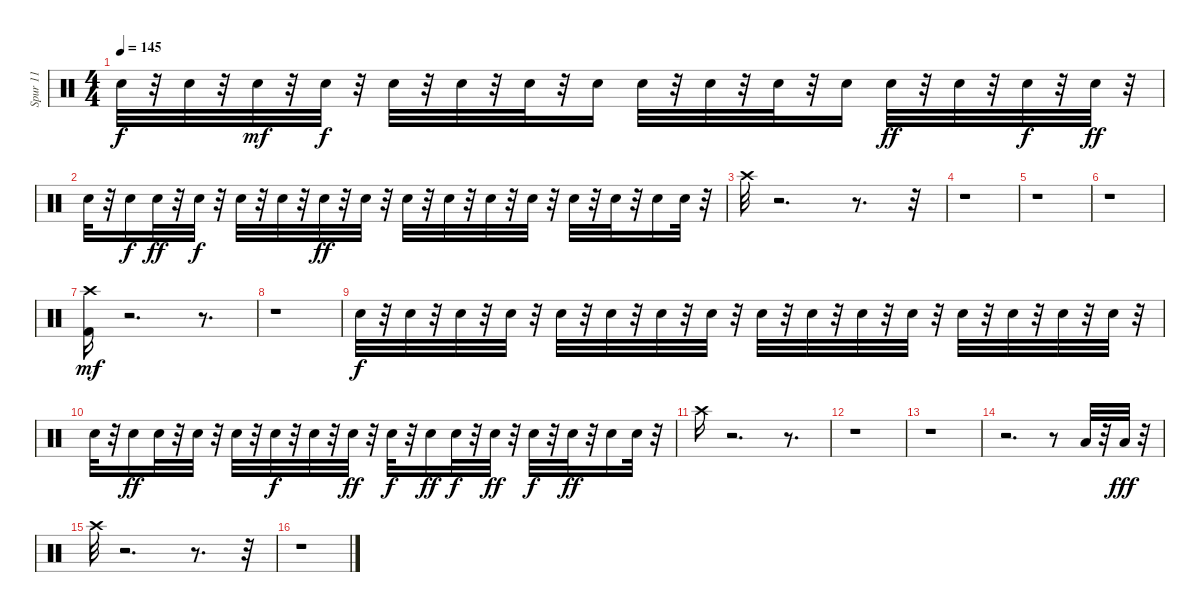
\track ("Spur 11" "Spur 11") {instrument percussion}
\staff {score}
\articulation defaults
\ts (4 4)
\tempo 145
\clef neutral
\ks c "Electric Snare (hit)".32{dy f}
r.32 "Electric Snare (hit)".32 r.32 "Electric Snare (hit)".32{dy mf} r.32 "Electric Snare (hit)".32{dy f} r.32 "Electric Snare (hit)".32 r.32 "Electric Snare (hit)".32 r.32 "Electric Snare (hit)".32 r.32 "Electric Snare (hit)".16 "Electric Snare (hit)".32 r.32 "Electric Snare (hit)".32 r.32 "Electric Snare (hit)".32 r.32 "Electric Snare (hit)".16 "Electric Snare (hit)".32{dy ff} r.32 "Electric Snare (hit)".32 r.32 "Electric Snare (hit)".32{dy f} r.32 "Electric Snare (hit)".32{dy ff} r.32 |
"Electric Snare (hit)".32 r.32 "Electric Snare (hit)".16{dy f} "Electric Snare (hit)".32{dy ff} r.32 "Electric Snare (hit)".32{dy f} r.32 "Electric Snare (hit)".32 r.32 "Electric Snare (hit)".32 r.32 "Electric Snare (hit)".32{dy ff} r.32 "Electric Snare (hit)".32 r.32 "Electric Snare (hit)".32 r.32 "Electric Snare (hit)".32 r.32 "Electric Snare (hit)".32 r.32 "Electric Snare (hit)".32 r.32 "Electric Snare (hit)".32 r.32 "Electric Snare (hit)".32 r.32 "Electric Snare (hit)".16 "Electric Snare (hit)".32 r.32 |
"Crash high (hit)".32 r.2{d} r.8{d} r.32 |
r.1 |
r.1 |
r.1 |
("Crash high (hit)" "Kick (hit) 2").16{dy mf} r.2{d} r.8{d} |
r.1 |
"Electric Snare (hit)".32{dy f} r.32 "Electric Snare (hit)".32 r.32 "Electric Snare (hit)".32 r.32 "Electric Snare (hit)".32 r.32 "Electric Snare (hit)".32 r.32 "Electric Snare (hit)".32 r.32 "Electric Snare (hit)".32 r.32 "Electric Snare (hit)".32 r.32 "Electric Snare (hit)".32 r.32 "Electric Snare (hit)".32 r.32 "Electric Snare (hit)".32 r.32 "Electric Snare (hit)".32 r.32 "Electric Snare (hit)".32 r.32 "Electric Snare (hit)".32 r.32 "Electric Snare (hit)".32 r.32 "Electric Snare (hit)".32 r.32 |
"Electric Snare (hit)".32 r.32 "Electric Snare (hit)".16{dy ff} "Electric Snare (hit)".32 r.32 "Electric Snare (hit)".32 r.32 "Electric Snare (hit)".32 r.32 "Electric Snare (hit)".32{dy f} r.32 "Electric Snare (hit)".32 r.32 "Electric Snare (hit)".32{dy ff} r.32 "Electric Snare (hit)".32{dy f} r.32 "Electric Snare (hit)".16{dy ff} "Electric Snare (hit)".32{dy f} r.32 "Electric Snare (hit)".32{dy ff} r.32 "Electric Snare (hit)".32{dy f} r.32 "Electric Snare (hit)".32{dy ff} r.32 "Electric Snare (hit)".16 "Electric Snare (hit)".32 r.32 |
"Crash high (hit)".16 r.2{d} r.8{d} |
r.1 |
r.1 |
r.2{d} r.8 "Low Tom (hit)".32 r.32 "Low Tom (hit)".32{dy fff} r.32 |
"Crash high (hit)".32 r.2{d} r.8{d} r.32 |
r.1
